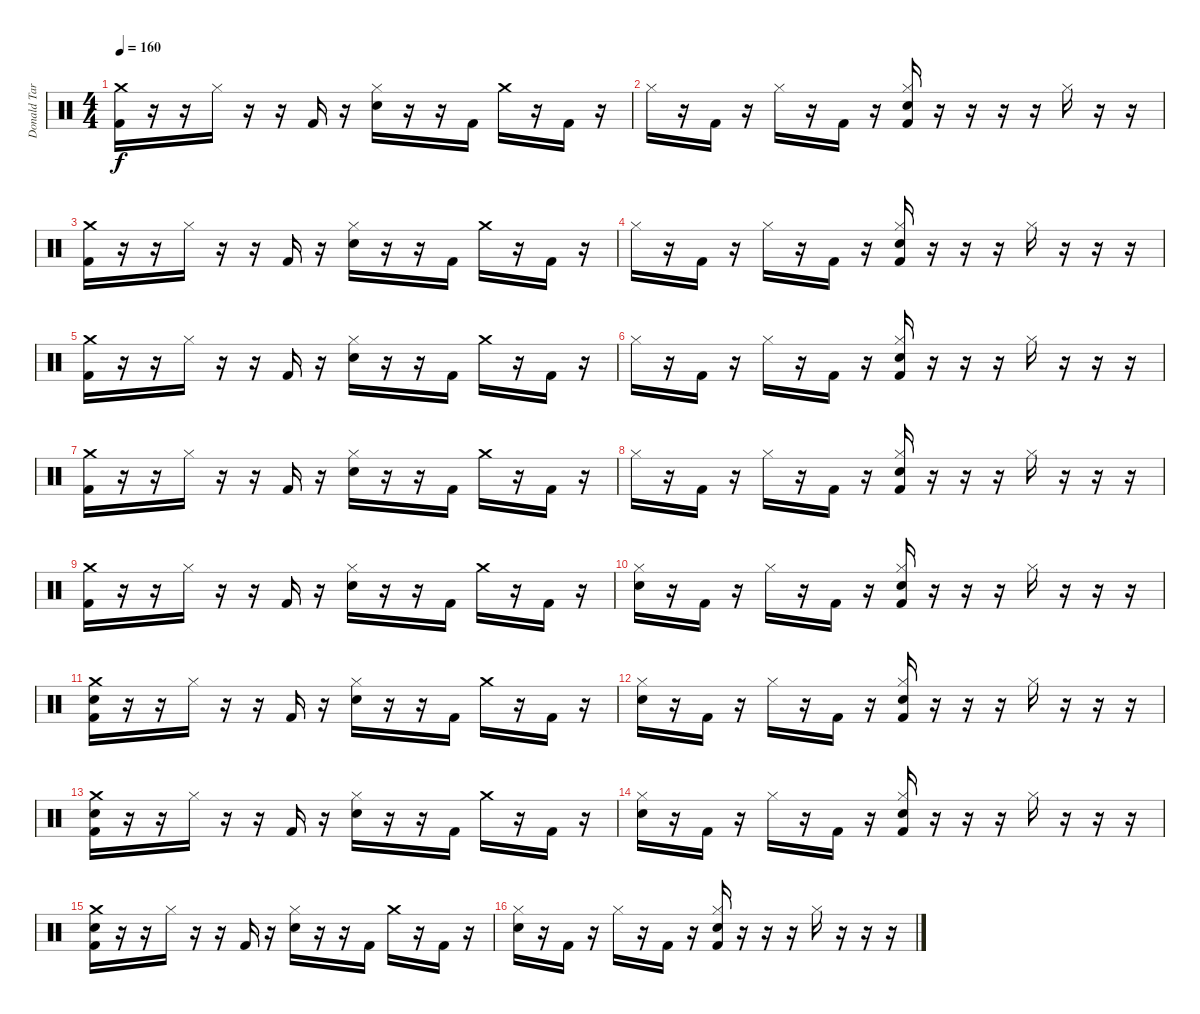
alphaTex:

\track ("Donald Tardy" "Donald Tar") {instrument percussion}
\staff {score}
\articulation defaults
\ts (4 4)
\tempo 160
\clef neutral
\ks c
("Crash medium (hit)" "Kick (hit) 2").16{dy f} r.16 r.16 "Hi-Hat (closed)".16 r.16 r.16 "Kick (hit) 2".16 r.16 ("Hi-Hat (closed)" "Electric Snare (hit)").16 r.16 r.16 "Kick (hit) 2".16 "Crash medium (hit)".16 r.16 "Kick (hit) 2".16 r.16 |
"Hi-Hat (closed)".16 r.16 "Kick (hit) 2".16 r.16 "Hi-Hat (closed)".16 r.16 "Kick (hit) 2".16 r.16 ("Hi-Hat (closed)" "Electric Snare (hit)" "Kick (hit) 2").16 r.16 r.16 r.16 r.16 "Hi-Hat (closed)".16 r.16 r.16 |
("Crash medium (hit)" "Kick (hit) 2").16 r.16 r.16 "Hi-Hat (closed)".16 r.16 r.16 "Kick (hit) 2".16 r.16 ("Hi-Hat (closed)" "Electric Snare (hit)").16 r.16 r.16 "Kick (hit) 2".16 "Crash medium (hit)".16 r.16 "Kick (hit) 2".16 r.16 |
"Hi-Hat (closed)".16 r.16 "Kick (hit) 2".16 r.16 "Hi-Hat (closed)".16 r.16 "Kick (hit) 2".16 r.16 ("Hi-Hat (closed)" "Electric Snare (hit)" "Kick (hit) 2").16 r.16 r.16 r.16 "Hi-Hat (closed)".16 r.16 r.16 r.16 |
("Crash medium (hit)" "Kick (hit) 2").16 r.16 r.16 "Hi-Hat (closed)".16 r.16 r.16 "Kick (hit) 2".16 r.16 ("Hi-Hat (closed)" "Electric Snare (hit)").16 r.16 r.16 "Kick (hit) 2".16 "Crash medium (hit)".16 r.16 "Kick (hit) 2".16 r.16 |
"Hi-Hat (closed)".16 r.16 "Kick (hit) 2".16 r.16 "Hi-Hat (closed)".16 r.16 "Kick (hit) 2".16 r.16 ("Hi-Hat (closed)" "Electric Snare (hit)" "Kick (hit) 2").16 r.16 r.16 r.16 "Hi-Hat (closed)".16 r.16 r.16 r.16 |
("Crash medium (hit)" "Kick (hit) 2").16 r.16 r.16 "Hi-Hat (closed)".16 r.16 r.16 "Kick (hit) 2".16 r.16 ("Hi-Hat (closed)" "Electric Snare (hit)").16 r.16 r.16 "Kick (hit) 2".16 "Crash medium (hit)".16 r.16 "Kick (hit) 2".16 r.16 |
"Hi-Hat (closed)".16 r.16 "Kick (hit) 2".16 r.16 "Hi-Hat (closed)".16 r.16 "Kick (hit) 2".16 r.16 ("Hi-Hat (closed)" "Electric Snare (hit)" "Kick (hit) 2").16 r.16 r.16 r.16 "Hi-Hat (closed)".16 r.16 r.16 r.16 |
("Crash medium (hit)" "Kick (hit) 2").16 r.16 r.16 "Hi-Hat (closed)".16 r.16 r.16 "Kick (hit) 2".16 r.16 ("Hi-Hat (closed)" "Electric Snare (hit)").16 r.16 r.16 "Kick (hit) 2".16 "Crash medium (hit)".16 r.16 "Kick (hit) 2".16 r.16 |
("Hi-Hat (closed)" "Electric Snare (hit)").16 r.16 "Kick (hit) 2".16 r.16 "Hi-Hat (closed)".16 r.16 "Kick (hit) 2".16 r.16 ("Hi-Hat (closed)" "Electric Snare (hit)" "Kick (hit) 2").16 r.16 r.16 r.16 "Hi-Hat (closed)".16 r.16 r.16 r.16 |
("Crash medium (hit)" "Electric Snare (hit)" "Kick (hit) 2").16 r.16 r.16 "Hi-Hat (closed)".16 r.16 r.16 "Kick (hit) 2".16 r.16 ("Hi-Hat (closed)" "Electric Snare (hit)").16 r.16 r.16 "Kick (hit) 2".16 "Crash medium (hit)".16 r.16 "Kick (hit) 2".16 r.16 |
("Hi-Hat (closed)" "Electric Snare (hit)").16 r.16 "Kick (hit) 2".16 r.16 "Hi-Hat (closed)".16 r.16 "Kick (hit) 2".16 r.16 ("Hi-Hat (closed)" "Electric Snare (hit)" "Kick (hit) 2").16 r.16 r.16 r.16 "Hi-Hat (closed)".16 r.16 r.16 r.16 |
("Crash medium (hit)" "Electric Snare (hit)" "Kick (hit) 2").16 r.16 r.16 "Hi-Hat (closed)".16 r.16 r.16 "Kick (hit) 2".16 r.16 ("Hi-Hat (closed)" "Electric Snare (hit)").16 r.16 r.16 "Kick (hit) 2".16 "Crash medium (hit)".16 r.16 "Kick (hit) 2".16 r.16 |
("Hi-Hat (closed)" "Electric Snare (hit)").16 r.16 "Kick (hit) 2".16 r.16 "Hi-Hat (closed)".16 r.16 "Kick (hit) 2".16 r.16 ("Hi-Hat (closed)" "Electric Snare (hit)" "Kick (hit) 2").16 r.16 r.16 r.16 "Hi-Hat (closed)".16 r.16 r.16 r.16 |
("Crash medium (hit)" "Electric Snare (hit)" "Kick (hit) 2").16 r.16 r.16 "Hi-Hat (closed)".16 r.16 r.16 "Kick (hit) 2".16 r.16 ("Hi-Hat (closed)" "Electric Snare (hit)").16 r.16 r.16 "Kick (hit) 2".16 "Crash medium (hit)".16 r.16 "Kick (hit) 2".16 r.16 |
("Hi-Hat (closed)" "Electric Snare (hit)").16 r.16 "Kick (hit) 2".16 r.16 "Hi-Hat (closed)".16 r.16 "Kick (hit) 2".16 r.16 ("Hi-Hat (closed)" "Electric Snare (hit)" "Kick (hit) 2").16 r.16 r.16 r.16 "Hi-Hat (closed)".16 r.16 r.16 r.16
